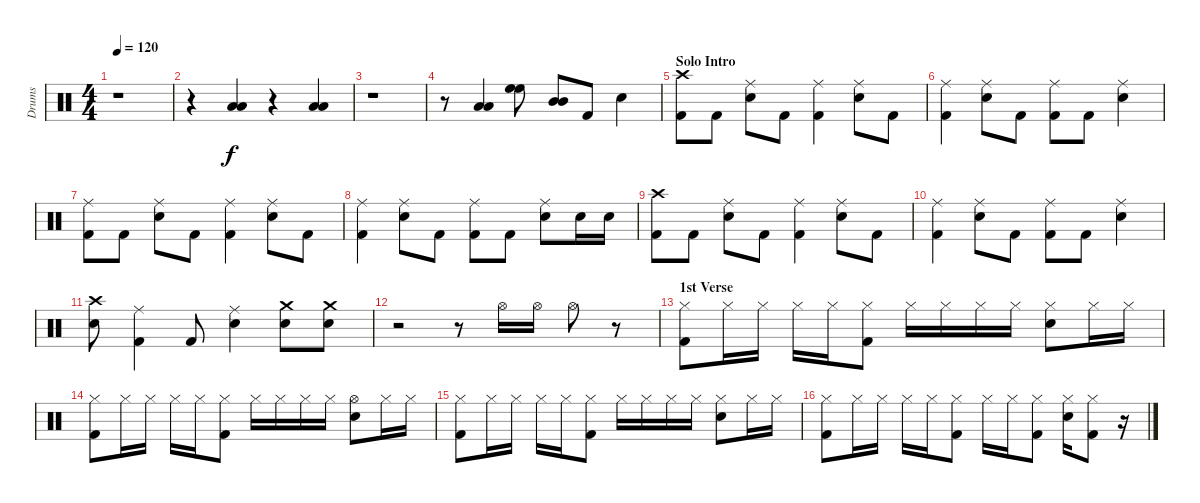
\track ("Drums" "Drums") {instrument percussion}
\staff {score}
\articulation defaults
\ts (4 4)
\tempo 120
\clef neutral
\ks c
r.1{dy f} |
r.4 ("Low Floor Tom (hit)" "Low Floor Tom (hit)").4 r.4 ("Low Floor Tom (hit)" "Low Floor Tom (hit)").4 |
r.1 |
r.8 ("Low Floor Tom (hit)" "Low Floor Tom (hit)").4 ("High Floor Tom (hit)" "High Floor Tom (hit)").8 ("Mid Tom (hit)" "Mid Tom (hit)").8 "Kick (hit) 2".8 "Snare (hit) 2".4 |
\section ("" "Solo Intro")
("Crash high (hit)" "Kick (hit) 2").8 "Kick (hit) 2".8 ("Ride (middle)" "Snare (hit) 2").8 "Kick (hit) 2".8 ("Ride (middle)" "Kick (hit) 2").4 ("Ride (middle)" "Snare (hit) 2").8 "Kick (hit) 2".8 |
("Ride (middle)" "Kick (hit) 2").4 ("Ride (middle)" "Snare (hit) 2").8 "Kick (hit) 2".8 ("Ride (middle)" "Kick (hit) 2").8 "Kick (hit) 2".8 ("Ride (middle)" "Snare (hit) 2").4 |
("Ride (middle)" "Kick (hit) 2").8 "Kick (hit) 2".8 ("Ride (middle)" "Snare (hit) 2").8 "Kick (hit) 2".8 ("Ride (middle)" "Kick (hit) 2").4 ("Ride (middle)" "Snare (hit) 2").8 "Kick (hit) 2".8 |
("Ride (middle)" "Kick (hit) 2").4 ("Ride (middle)" "Snare (hit) 2").8 "Kick (hit) 2".8 ("Ride (middle)" "Kick (hit) 2").8 "Kick (hit) 2".8 ("Ride (middle)" "Snare (hit) 2").8 "Snare (hit) 2".16 "Snare (hit) 2".16 |
("Crash high (hit)" "Kick (hit) 2").8 "Kick (hit) 2".8 ("Ride (middle)" "Snare (hit) 2").8 "Kick (hit) 2".8 ("Ride (middle)" "Kick (hit) 2").4 ("Ride (middle)" "Snare (hit) 2").8 "Kick (hit) 2".8 |
("Ride (middle)" "Kick (hit) 2").4 ("Ride (middle)" "Snare (hit) 2").8 "Kick (hit) 2".8 ("Ride (middle)" "Kick (hit) 2").8 "Kick (hit) 2".8 ("Ride (middle)" "Snare (hit) 2").4 |
("Crash high (hit)" "Snare (hit) 2").8 ("Ride (middle)" "Kick (hit) 2").4 "Kick (hit) 2".8 ("Ride (middle)" "Snare (hit) 2").4 ("Crash medium (hit)" "Snare (hit) 2").8 ("Crash medium (hit)" "Snare (hit) 2").8 |
r.2 r.8 "Hi-Hat (open)".16 "Hi-Hat (open)".16 "Hi-Hat (open)".8 r.8 |
\section ("" "1st Verse")
("Hi-Hat (closed)" "Kick (hit) 2").8 "Hi-Hat (closed)".16 "Hi-Hat (closed)".16 "Hi-Hat (closed)".16 "Hi-Hat (closed)".16 ("Hi-Hat (closed)" "Kick (hit) 2").8 "Hi-Hat (closed)".16 "Hi-Hat (closed)".16 "Hi-Hat (closed)".16 "Hi-Hat (closed)".16 ("Hi-Hat (closed)" "Snare (hit) 2").8 "Hi-Hat (closed)".16 "Hi-Hat (closed)".16 |
("Hi-Hat (closed)" "Kick (hit) 2").8 "Hi-Hat (closed)".16 "Hi-Hat (closed)".16 "Hi-Hat (closed)".16 "Hi-Hat (closed)".16 ("Hi-Hat (closed)" "Kick (hit) 2").8 "Hi-Hat (closed)".16 "Hi-Hat (closed)".16 "Hi-Hat (closed)".16 "Hi-Hat (closed)".16 ("Hi-Hat (open)" "Snare (hit) 2").8 "Hi-Hat (closed)".16 "Hi-Hat (closed)".16 |
("Hi-Hat (closed)" "Kick (hit) 2").8 "Hi-Hat (closed)".16 "Hi-Hat (closed)".16 "Hi-Hat (closed)".16 "Hi-Hat (closed)".16 ("Hi-Hat (closed)" "Kick (hit) 2").8 "Hi-Hat (closed)".16 "Hi-Hat (closed)".16 "Hi-Hat (closed)".16 "Hi-Hat (closed)".16 ("Hi-Hat (closed)" "Snare (hit) 2").8 "Hi-Hat (closed)".16 "Hi-Hat (closed)".16 |
("Hi-Hat (closed)" "Kick (hit) 2").8 "Hi-Hat (closed)".16 "Hi-Hat (closed)".16 "Hi-Hat (closed)".16 "Hi-Hat (closed)".16 ("Hi-Hat (closed)" "Kick (hit) 2").8 "Hi-Hat (closed)".16 "Hi-Hat (closed)".16 ("Hi-Hat (closed)" "Kick (hit) 2").8 ("Hi-Hat (closed)" "Snare (hit) 2").16 ("Hi-Hat (closed)" "Kick (hit) 2").8 r.16
